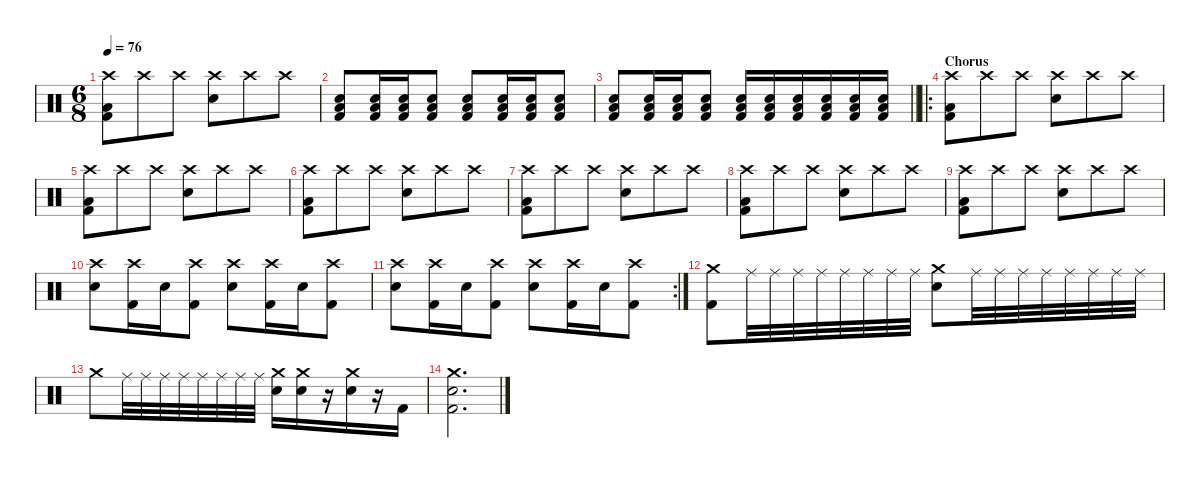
\defaultSystemsLayout 4
\hideDynamics
\bracketExtendMode nobrackets
\singleTrackTrackNamePolicy hidden
\multiTrackTrackNamePolicy hidden
\firstSystemTrackNameMode fullname
\firstSystemTrackNameOrientation horizontal
\otherSystemsTrackNameOrientation horizontal
\track ("Drums" "drm.") {instrument percussion}
\staff {score}
\articulation defaults
\ts (6 8)
\tempo 76
\clef neutral
\ks c
("Crash high (hit)" "Low Floor Tom (hit)" "Kick (hit) 2").8{dy f beam Down} "Crash high (hit)".8{beam Down} "Crash high (hit)".8{beam Down} ("Crash high (hit)" "Snare (hit) 2").8{beam Down} "Crash high (hit)".8{beam Down} "Crash high (hit)".8{beam Down} |
("Low Tom (hit)" "Snare (hit) 2" "Kick (hit) 2").8{beam Up} ("Low Tom (hit)" "Snare (hit) 2" "Kick (hit) 2").16{beam Up} ("Low Tom (hit)" "Snare (hit) 2" "Kick (hit) 2").16{beam Up} ("Low Tom (hit)" "Snare (hit) 2" "Kick (hit) 2").8{beam Up} ("Low Tom (hit)" "Snare (hit) 2" "Kick (hit) 2").8{beam Up} ("Low Tom (hit)" "Snare (hit) 2" "Kick (hit) 2").16{beam Up} ("Low Tom (hit)" "Snare (hit) 2" "Kick (hit) 2").16{beam Up} ("Low Tom (hit)" "Snare (hit) 2" "Kick (hit) 2").8{beam Up} |
\barLineRight lightlight
("Low Tom (hit)" "Snare (hit) 2" "Kick (hit) 2").8{beam Up} ("Low Tom (hit)" "Snare (hit) 2" "Kick (hit) 2").16{beam Up} ("Low Tom (hit)" "Snare (hit) 2" "Kick (hit) 2").16{beam Up} ("Low Tom (hit)" "Snare (hit) 2" "Kick (hit) 2").8{beam Up} ("Low Tom (hit)" "Snare (hit) 2" "Kick (hit) 2").16{beam Up} ("Low Tom (hit)" "Snare (hit) 2" "Kick (hit) 2").16{beam Up} ("Low Tom (hit)" "Snare (hit) 2" "Kick (hit) 2").16{beam Up} ("Low Tom (hit)" "Snare (hit) 2" "Kick (hit) 2").16{beam Up} ("Low Tom (hit)" "Snare (hit) 2" "Kick (hit) 2").16{beam Up} ("Low Tom (hit)" "Snare (hit) 2" "Kick (hit) 2").16{beam Up} |
\ro
\section ("" "Chorus")
("Crash high (hit)" "Low Floor Tom (hit)" "Kick (hit) 2").8{beam Down} "Crash high (hit)".8{beam Down} "Crash high (hit)".8{beam Down} ("Crash high (hit)" "Snare (hit) 2").8{beam Down} "Crash high (hit)".8{beam Down} "Crash high (hit)".8{beam Down} |
("Crash high (hit)" "Low Floor Tom (hit)" "Kick (hit) 2").8{beam Down} "Crash high (hit)".8{beam Down} "Crash high (hit)".8{beam Down} ("Crash high (hit)" "Snare (hit) 2").8{beam Down} "Crash high (hit)".8{beam Down} "Crash high (hit)".8{beam Down} |
("Crash high (hit)" "Low Floor Tom (hit)" "Kick (hit) 2").8{beam Down} "Crash high (hit)".8{beam Down} "Crash high (hit)".8{beam Down} ("Crash high (hit)" "Snare (hit) 2").8{beam Down} "Crash high (hit)".8{beam Down} "Crash high (hit)".8{beam Down} |
("Crash high (hit)" "Low Floor Tom (hit)" "Kick (hit) 2").8{beam Down} "Crash high (hit)".8{beam Down} "Crash high (hit)".8{beam Down} ("Crash high (hit)" "Snare (hit) 2").8{beam Down} "Crash high (hit)".8{beam Down} "Crash high (hit)".8{beam Down} |
("Crash high (hit)" "Low Floor Tom (hit)" "Kick (hit) 2").8{beam Down} "Crash high (hit)".8{beam Down} "Crash high (hit)".8{beam Down} ("Crash high (hit)" "Snare (hit) 2").8{beam Down} "Crash high (hit)".8{beam Down} "Crash high (hit)".8{beam Down} |
("Crash high (hit)" "Low Floor Tom (hit)" "Kick (hit) 2").8{beam Down} "Crash high (hit)".8{beam Down} "Crash high (hit)".8{beam Down} ("Crash high (hit)" "Snare (hit) 2").8{beam Down} "Crash high (hit)".8{beam Down} "Crash high (hit)".8{beam Down} |
("Crash high (hit)" "Snare (hit) 2").8{beam Down} ("Crash high (hit)" "Kick (hit) 2").16{beam Down} "Snare (hit) 2".16{beam Down} ("Crash high (hit)" "Kick (hit) 2").8{beam Down} ("Crash high (hit)" "Snare (hit) 2").8{beam Down} ("Crash high (hit)" "Kick (hit) 2").16{beam Down} "Snare (hit) 2".16{beam Down} ("Crash high (hit)" "Kick (hit) 2").8{beam Down} |
\rc 2
("Crash high (hit)" "Snare (hit) 2").8{beam Down} ("Crash high (hit)" "Kick (hit) 2").16{beam Down} "Snare (hit) 2".16{beam Down} ("Crash high (hit)" "Kick (hit) 2").8{beam Down} ("Crash high (hit)" "Snare (hit) 2").8{beam Down} ("Crash high (hit)" "Kick (hit) 2").16{beam Down} "Snare (hit) 2".16{beam Down} ("Crash high (hit)" "Kick (hit) 2").8{beam Down} |
("Crash medium (hit)" "Kick (hit) 2").8{beam Down} "Ride (middle)".32{beam Down} "Ride (middle)".32{beam Down} "Ride (middle)".32{beam Down} "Ride (middle)".32{beam Down} "Ride (middle)".32{beam Down} "Ride (middle)".32{beam Down} "Ride (middle)".32{beam Down} "Ride (middle)".32{beam Down} ("Crash medium (hit)" "Snare (hit) 2").8{beam Down} "Ride (middle)".32{beam Down} "Ride (middle)".32{beam Down} "Ride (middle)".32{beam Down} "Ride (middle)".32{beam Down} "Ride (middle)".32{beam Down} "Ride (middle)".32{beam Down} "Ride (middle)".32{beam Down} "Ride (middle)".32{beam Down} |
"Crash medium (hit)".8{beam Down} "Ride (middle)".32{beam Down} "Ride (middle)".32{beam Down} "Ride (middle)".32{beam Down} "Ride (middle)".32{beam Down} "Ride (middle)".32{beam Down} "Ride (middle)".32{beam Down} "Ride (middle)".32{beam Down} "Ride (middle)".32{beam Down} ("Crash medium (hit)" "Snare (hit) 2").16{beam Down} ("Crash medium (hit)" "Snare (hit) 2").16{beam Down} r.16{beam Down} ("Crash medium (hit)" "Snare (hit) 2").16{beam Down} r.16{beam Down} "Kick (hit) 2".16{beam Down} |
("Crash medium (hit)" "Snare (hit) 2" "Kick (hit) 2").2{d beam Down}
